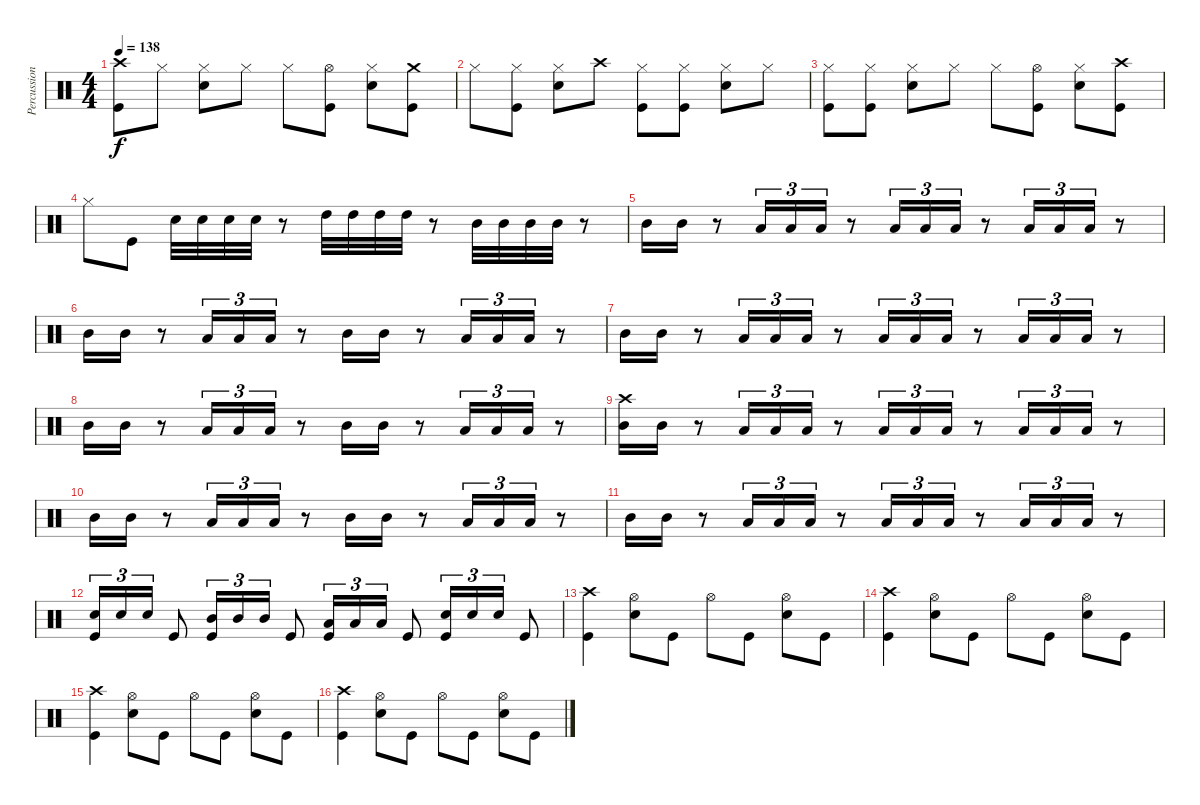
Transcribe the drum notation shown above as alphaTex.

\track ("Percussion" "Percussion") {instrument percussion}
\staff {score}
\articulation defaults
\ts (4 4)
\tempo 138
\clef neutral
\ks c
("Kick (hit)" "Crash high (hit)").8{dy f} "Hi-Hat (closed)".8 ("Snare (hit) 2" "Hi-Hat (closed)").8 "Hi-Hat (closed)".8 "Hi-Hat (closed)".8 ("Kick (hit)" "Hi-Hat (open)").8 ("Snare (hit) 2" "Hi-Hat (closed)").8 ("Kick (hit)" "Crash medium (hit)").8 |
"Hi-Hat (closed)".8 ("Hi-Hat (closed)" "Kick (hit)").8 ("Hi-Hat (closed)" "Snare (hit) 2").8 "Crash high (hit)".8 ("Hi-Hat (closed)" "Kick (hit)").8 ("Hi-Hat (closed)" "Kick (hit)").8 ("Snare (hit) 2" "Hi-Hat (closed)").8 "Hi-Hat (closed)".8 |
("Hi-Hat (closed)" "Kick (hit)").8 ("Hi-Hat (closed)" "Kick (hit)").8 ("Hi-Hat (closed)" "Snare (hit) 2").8 "Hi-Hat (closed)".8 "Hi-Hat (closed)".8 ("Hi-Hat (open)" "Kick (hit)").8 ("Hi-Hat (closed)" "Snare (hit) 2").8 ("Crash high (hit)" "Kick (hit)").8 |
"Hi-Hat (closed)".8 "Kick (hit)".8 "Snare (hit) 2".32 "Snare (hit) 2".32 "Snare (hit) 2".32 "Snare (hit) 2".32 r.8 "High Tom (hit)".32 "High Tom (hit)".32 "High Tom (hit)".32 "High Tom (hit)".32 r.8 "Mid Tom (hit)".32 "Mid Tom (hit)".32 "Mid Tom (hit)".32 "Mid Tom (hit)".32 r.8 |
"Mid Tom (hit)".16 "Mid Tom (hit)".16 r.8 "Low Tom (hit)".16{tu (3 2)} "Low Tom (hit)".16{tu (3 2)} "Low Tom (hit)".16{tu (3 2)} r.8 "Low Tom (hit)".16{tu (3 2)} "Low Tom (hit)".16{tu (3 2)} "Low Tom (hit)".16{tu (3 2)} r.8 "Low Tom (hit)".16{tu (3 2)} "Low Tom (hit)".16{tu (3 2)} "Low Tom (hit)".16{tu (3 2)} r.8 |
"Mid Tom (hit)".16 "Mid Tom (hit)".16 r.8 "Low Tom (hit)".16{tu (3 2)} "Low Tom (hit)".16{tu (3 2)} "Low Tom (hit)".16{tu (3 2)} r.8 "Mid Tom (hit)".16 "Mid Tom (hit)".16 r.8 "Low Tom (hit)".16{tu (3 2)} "Low Tom (hit)".16{tu (3 2)} "Low Tom (hit)".16{tu (3 2)} r.8 |
"Mid Tom (hit)".16 "Mid Tom (hit)".16 r.8 "Low Tom (hit)".16{tu (3 2)} "Low Tom (hit)".16{tu (3 2)} "Low Tom (hit)".16{tu (3 2)} r.8 "Low Tom (hit)".16{tu (3 2)} "Low Tom (hit)".16{tu (3 2)} "Low Tom (hit)".16{tu (3 2)} r.8 "Low Tom (hit)".16{tu (3 2)} "Low Tom (hit)".16{tu (3 2)} "Low Tom (hit)".16{tu (3 2)} r.8 |
"Mid Tom (hit)".16 "Mid Tom (hit)".16 r.8 "Low Tom (hit)".16{tu (3 2)} "Low Tom (hit)".16{tu (3 2)} "Low Tom (hit)".16{tu (3 2)} r.8 "Mid Tom (hit)".16 "Mid Tom (hit)".16 r.8 "Low Tom (hit)".16{tu (3 2)} "Low Tom (hit)".16{tu (3 2)} "Low Tom (hit)".16{tu (3 2)} r.8 |
("Mid Tom (hit)" "Crash high (hit)").16 "Mid Tom (hit)".16 r.8 "Low Tom (hit)".16{tu (3 2)} "Low Tom (hit)".16{tu (3 2)} "Low Tom (hit)".16{tu (3 2)} r.8 "Low Tom (hit)".16{tu (3 2)} "Low Tom (hit)".16{tu (3 2)} "Low Tom (hit)".16{tu (3 2)} r.8 "Low Tom (hit)".16{tu (3 2)} "Low Tom (hit)".16{tu (3 2)} "Low Tom (hit)".16{tu (3 2)} r.8 |
"Mid Tom (hit)".16 "Mid Tom (hit)".16 r.8 "Low Tom (hit)".16{tu (3 2)} "Low Tom (hit)".16{tu (3 2)} "Low Tom (hit)".16{tu (3 2)} r.8 "Mid Tom (hit)".16 "Mid Tom (hit)".16 r.8 "Low Tom (hit)".16{tu (3 2)} "Low Tom (hit)".16{tu (3 2)} "Low Tom (hit)".16{tu (3 2)} r.8 |
"Mid Tom (hit)".16 "Mid Tom (hit)".16 r.8 "Low Tom (hit)".16{tu (3 2)} "Low Tom (hit)".16{tu (3 2)} "Low Tom (hit)".16{tu (3 2)} r.8 "Low Tom (hit)".16{tu (3 2)} "Low Tom (hit)".16{tu (3 2)} "Low Tom (hit)".16{tu (3 2)} r.8 "Low Tom (hit)".16{tu (3 2)} "Low Tom (hit)".16{tu (3 2)} "Low Tom (hit)".16{tu (3 2)} r.8 |
("Snare (hit) 2" "Kick (hit)").16{tu (3 2)} "Snare (hit) 2".16{tu (3 2)} "Snare (hit) 2".16{tu (3 2)} "Kick (hit)".8 ("Mid Tom (hit)" "Kick (hit)").16{tu (3 2)} "Mid Tom (hit)".16{tu (3 2)} "Mid Tom (hit)".16{tu (3 2)} "Kick (hit)".8 ("Low Tom (hit)" "Kick (hit)").16{tu (3 2)} "Low Tom (hit)".16{tu (3 2)} "Low Tom (hit)".16{tu (3 2)} "Kick (hit)".8 ("Snare (hit) 2" "Kick (hit)").16{tu (3 2)} "Snare (hit) 2".16{tu (3 2)} "Snare (hit) 2".16{tu (3 2)} "Kick (hit)".8 |
("Kick (hit)" "Crash high (hit)").4 ("Snare (hit) 2" "Hi-Hat (open)").8 "Kick (hit)".8 "Hi-Hat (open)".8 "Kick (hit)".8 ("Snare (hit) 2" "Hi-Hat (open)").8 "Kick (hit)".8 |
("Kick (hit)" "Crash high (hit)").4 ("Snare (hit) 2" "Hi-Hat (open)").8 "Kick (hit)".8 "Hi-Hat (open)".8 "Kick (hit)".8 ("Snare (hit) 2" "Hi-Hat (open)").8 "Kick (hit)".8 |
("Kick (hit)" "Crash high (hit)").4 ("Snare (hit) 2" "Hi-Hat (open)").8 "Kick (hit)".8 "Hi-Hat (open)".8 "Kick (hit)".8 ("Snare (hit) 2" "Hi-Hat (open)").8 "Kick (hit)".8 |
("Kick (hit)" "Crash high (hit)").4 ("Snare (hit) 2" "Hi-Hat (open)").8 "Kick (hit)".8 "Hi-Hat (open)".8 "Kick (hit)".8 ("Snare (hit) 2" "Hi-Hat (open)").8 "Kick (hit)".8
